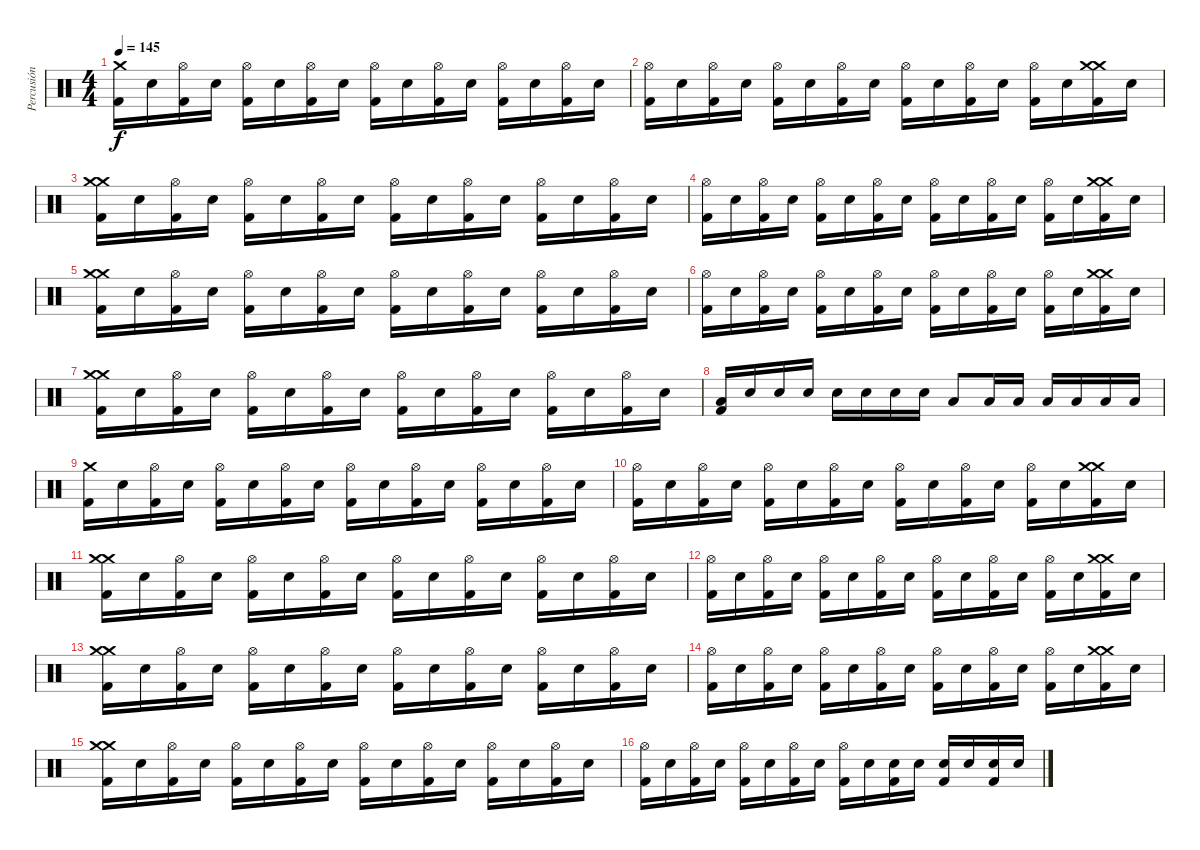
\track ("Percusión" "Percusión") {instrument percussion}
\staff {score}
\articulation defaults
\ts (4 4)
\tempo 145
\clef neutral
\ks c
("Crash medium (hit)" "Kick (hit) 2").16{dy f} "Snare (hit) 2".16 ("Hi-Hat (open)" "Kick (hit) 2").16 "Snare (hit) 2".16 ("Hi-Hat (open)" "Kick (hit) 2").16 "Snare (hit) 2".16 ("Hi-Hat (open)" "Kick (hit) 2").16 "Snare (hit) 2".16 ("Hi-Hat (open)" "Kick (hit) 2").16 "Snare (hit) 2".16 ("Hi-Hat (open)" "Kick (hit) 2").16 "Snare (hit) 2".16 ("Hi-Hat (open)" "Kick (hit) 2").16 "Snare (hit) 2".16 ("Hi-Hat (open)" "Kick (hit) 2").16 "Snare (hit) 2".16 |
("Hi-Hat (open)" "Kick (hit) 2").16 "Snare (hit) 2".16 ("Hi-Hat (open)" "Kick (hit) 2").16 "Snare (hit) 2".16 ("Hi-Hat (open)" "Kick (hit) 2").16 "Snare (hit) 2".16 ("Hi-Hat (open)" "Kick (hit) 2").16 "Snare (hit) 2".16 ("Hi-Hat (open)" "Kick (hit) 2").16 "Snare (hit) 2".16 ("Hi-Hat (open)" "Kick (hit) 2").16 "Snare (hit) 2".16 ("Hi-Hat (open)" "Kick (hit) 2").16 "Snare (hit) 2".16 ("Crash medium (hit)" "Crash medium (hit)" "Kick (hit) 2").16 "Snare (hit) 2".16 |
("Crash medium (hit)" "Crash medium (hit)" "Kick (hit) 2").16 "Snare (hit) 2".16 ("Hi-Hat (open)" "Kick (hit) 2").16 "Snare (hit) 2".16 ("Hi-Hat (open)" "Kick (hit) 2").16 "Snare (hit) 2".16 ("Hi-Hat (open)" "Kick (hit) 2").16 "Snare (hit) 2".16 ("Hi-Hat (open)" "Kick (hit) 2").16 "Snare (hit) 2".16 ("Hi-Hat (open)" "Kick (hit) 2").16 "Snare (hit) 2".16 ("Hi-Hat (open)" "Kick (hit) 2").16 "Snare (hit) 2".16 ("Hi-Hat (open)" "Kick (hit) 2").16 "Snare (hit) 2".16 |
("Hi-Hat (open)" "Kick (hit) 2").16 "Snare (hit) 2".16 ("Hi-Hat (open)" "Kick (hit) 2").16 "Snare (hit) 2".16 ("Hi-Hat (open)" "Kick (hit) 2").16 "Snare (hit) 2".16 ("Hi-Hat (open)" "Kick (hit) 2").16 "Snare (hit) 2".16 ("Hi-Hat (open)" "Kick (hit) 2").16 "Snare (hit) 2".16 ("Hi-Hat (open)" "Kick (hit) 2").16 "Snare (hit) 2".16 ("Hi-Hat (open)" "Kick (hit) 2").16 "Snare (hit) 2".16 ("Crash medium (hit)" "Crash medium (hit)" "Kick (hit) 2").16 "Snare (hit) 2".16 |
("Crash medium (hit)" "Crash medium (hit)" "Kick (hit) 2").16 "Snare (hit) 2".16 ("Hi-Hat (open)" "Kick (hit) 2").16 "Snare (hit) 2".16 ("Hi-Hat (open)" "Kick (hit) 2").16 "Snare (hit) 2".16 ("Hi-Hat (open)" "Kick (hit) 2").16 "Snare (hit) 2".16 ("Hi-Hat (open)" "Kick (hit) 2").16 "Snare (hit) 2".16 ("Hi-Hat (open)" "Kick (hit) 2").16 "Snare (hit) 2".16 ("Hi-Hat (open)" "Kick (hit) 2").16 "Snare (hit) 2".16 ("Hi-Hat (open)" "Kick (hit) 2").16 "Snare (hit) 2".16 |
("Hi-Hat (open)" "Kick (hit) 2").16 "Snare (hit) 2".16 ("Hi-Hat (open)" "Kick (hit) 2").16 "Snare (hit) 2".16 ("Hi-Hat (open)" "Kick (hit) 2").16 "Snare (hit) 2".16 ("Hi-Hat (open)" "Kick (hit) 2").16 "Snare (hit) 2".16 ("Hi-Hat (open)" "Kick (hit) 2").16 "Snare (hit) 2".16 ("Hi-Hat (open)" "Kick (hit) 2").16 "Snare (hit) 2".16 ("Hi-Hat (open)" "Kick (hit) 2").16 "Snare (hit) 2".16 ("Crash medium (hit)" "Crash medium (hit)" "Kick (hit) 2").16 "Snare (hit) 2".16 |
("Crash medium (hit)" "Crash medium (hit)" "Kick (hit) 2").16 "Snare (hit) 2".16 ("Hi-Hat (open)" "Kick (hit) 2").16 "Snare (hit) 2".16 ("Hi-Hat (open)" "Kick (hit) 2").16 "Snare (hit) 2".16 ("Hi-Hat (open)" "Kick (hit) 2").16 "Snare (hit) 2".16 ("Hi-Hat (open)" "Kick (hit) 2").16 "Snare (hit) 2".16 ("Hi-Hat (open)" "Kick (hit) 2").16 "Snare (hit) 2".16 ("Hi-Hat (open)" "Kick (hit) 2").16 "Snare (hit) 2".16 ("Hi-Hat (open)" "Kick (hit) 2").16 "Snare (hit) 2".16 |
("Low Floor Tom (hit)" "Kick (hit) 2").16 "Snare (hit) 2".16 "Snare (hit) 2".16 "Snare (hit) 2".16 "Snare (hit) 2".16 "Snare (hit) 2".16 "Snare (hit) 2".16 "Snare (hit) 2".16 "Low Tom (hit)".8 "Low Tom (hit)".16 "Low Tom (hit)".16 "Low Tom (hit)".16 "Low Tom (hit)".16 "Low Tom (hit)".16 "Low Tom (hit)".16 |
("Crash medium (hit)" "Kick (hit) 2").16 "Snare (hit) 2".16 ("Hi-Hat (open)" "Kick (hit) 2").16 "Snare (hit) 2".16 ("Hi-Hat (open)" "Kick (hit) 2").16 "Snare (hit) 2".16 ("Hi-Hat (open)" "Kick (hit) 2").16 "Snare (hit) 2".16 ("Hi-Hat (open)" "Kick (hit) 2").16 "Snare (hit) 2".16 ("Hi-Hat (open)" "Kick (hit) 2").16 "Snare (hit) 2".16 ("Hi-Hat (open)" "Kick (hit) 2").16 "Snare (hit) 2".16 ("Hi-Hat (open)" "Kick (hit) 2").16 "Snare (hit) 2".16 |
("Hi-Hat (open)" "Kick (hit) 2").16 "Snare (hit) 2".16 ("Hi-Hat (open)" "Kick (hit) 2").16 "Snare (hit) 2".16 ("Hi-Hat (open)" "Kick (hit) 2").16 "Snare (hit) 2".16 ("Hi-Hat (open)" "Kick (hit) 2").16 "Snare (hit) 2".16 ("Hi-Hat (open)" "Kick (hit) 2").16 "Snare (hit) 2".16 ("Hi-Hat (open)" "Kick (hit) 2").16 "Snare (hit) 2".16 ("Hi-Hat (open)" "Kick (hit) 2").16 "Snare (hit) 2".16 ("Crash medium (hit)" "Crash medium (hit)" "Kick (hit) 2").16 "Snare (hit) 2".16 |
("Crash medium (hit)" "Crash medium (hit)" "Kick (hit) 2").16 "Snare (hit) 2".16 ("Hi-Hat (open)" "Kick (hit) 2").16 "Snare (hit) 2".16 ("Hi-Hat (open)" "Kick (hit) 2").16 "Snare (hit) 2".16 ("Hi-Hat (open)" "Kick (hit) 2").16 "Snare (hit) 2".16 ("Hi-Hat (open)" "Kick (hit) 2").16 "Snare (hit) 2".16 ("Hi-Hat (open)" "Kick (hit) 2").16 "Snare (hit) 2".16 ("Hi-Hat (open)" "Kick (hit) 2").16 "Snare (hit) 2".16 ("Hi-Hat (open)" "Kick (hit) 2").16 "Snare (hit) 2".16 |
("Hi-Hat (open)" "Kick (hit) 2").16 "Snare (hit) 2".16 ("Hi-Hat (open)" "Kick (hit) 2").16 "Snare (hit) 2".16 ("Hi-Hat (open)" "Kick (hit) 2").16 "Snare (hit) 2".16 ("Hi-Hat (open)" "Kick (hit) 2").16 "Snare (hit) 2".16 ("Hi-Hat (open)" "Kick (hit) 2").16 "Snare (hit) 2".16 ("Hi-Hat (open)" "Kick (hit) 2").16 "Snare (hit) 2".16 ("Hi-Hat (open)" "Kick (hit) 2").16 "Snare (hit) 2".16 ("Crash medium (hit)" "Crash medium (hit)" "Kick (hit) 2").16 "Snare (hit) 2".16 |
("Crash medium (hit)" "Crash medium (hit)" "Kick (hit) 2").16 "Snare (hit) 2".16 ("Hi-Hat (open)" "Kick (hit) 2").16 "Snare (hit) 2".16 ("Hi-Hat (open)" "Kick (hit) 2").16 "Snare (hit) 2".16 ("Hi-Hat (open)" "Kick (hit) 2").16 "Snare (hit) 2".16 ("Hi-Hat (open)" "Kick (hit) 2").16 "Snare (hit) 2".16 ("Hi-Hat (open)" "Kick (hit) 2").16 "Snare (hit) 2".16 ("Hi-Hat (open)" "Kick (hit) 2").16 "Snare (hit) 2".16 ("Hi-Hat (open)" "Kick (hit) 2").16 "Snare (hit) 2".16 |
("Hi-Hat (open)" "Kick (hit) 2").16 "Snare (hit) 2".16 ("Hi-Hat (open)" "Kick (hit) 2").16 "Snare (hit) 2".16 ("Hi-Hat (open)" "Kick (hit) 2").16 "Snare (hit) 2".16 ("Hi-Hat (open)" "Kick (hit) 2").16 "Snare (hit) 2".16 ("Hi-Hat (open)" "Kick (hit) 2").16 "Snare (hit) 2".16 ("Hi-Hat (open)" "Kick (hit) 2").16 "Snare (hit) 2".16 ("Hi-Hat (open)" "Kick (hit) 2").16 "Snare (hit) 2".16 ("Crash medium (hit)" "Crash medium (hit)" "Kick (hit) 2").16 "Snare (hit) 2".16 |
("Crash medium (hit)" "Crash medium (hit)" "Kick (hit) 2").16 "Snare (hit) 2".16 ("Hi-Hat (open)" "Kick (hit) 2").16 "Snare (hit) 2".16 ("Hi-Hat (open)" "Kick (hit) 2").16 "Snare (hit) 2".16 ("Hi-Hat (open)" "Kick (hit) 2").16 "Snare (hit) 2".16 ("Hi-Hat (open)" "Kick (hit) 2").16 "Snare (hit) 2".16 ("Hi-Hat (open)" "Kick (hit) 2").16 "Snare (hit) 2".16 ("Hi-Hat (open)" "Kick (hit) 2").16 "Snare (hit) 2".16 ("Hi-Hat (open)" "Kick (hit) 2").16 "Snare (hit) 2".16 |
("Hi-Hat (open)" "Kick (hit) 2").16 "Snare (hit) 2".16 ("Hi-Hat (open)" "Kick (hit) 2").16 "Snare (hit) 2".16 ("Hi-Hat (open)" "Kick (hit) 2").16 "Snare (hit) 2".16 ("Hi-Hat (open)" "Kick (hit) 2").16 "Snare (hit) 2".16 ("Hi-Hat (open)" "Kick (hit) 2").16 "Snare (hit) 2".16 ("Snare (hit) 2" "Kick (hit) 2").16 "Snare (hit) 2".16 ("Snare (hit) 2" "Kick (hit) 2").16 "Snare (hit) 2".16 ("Snare (hit) 2" "Kick (hit) 2").16 "Snare (hit) 2".16
